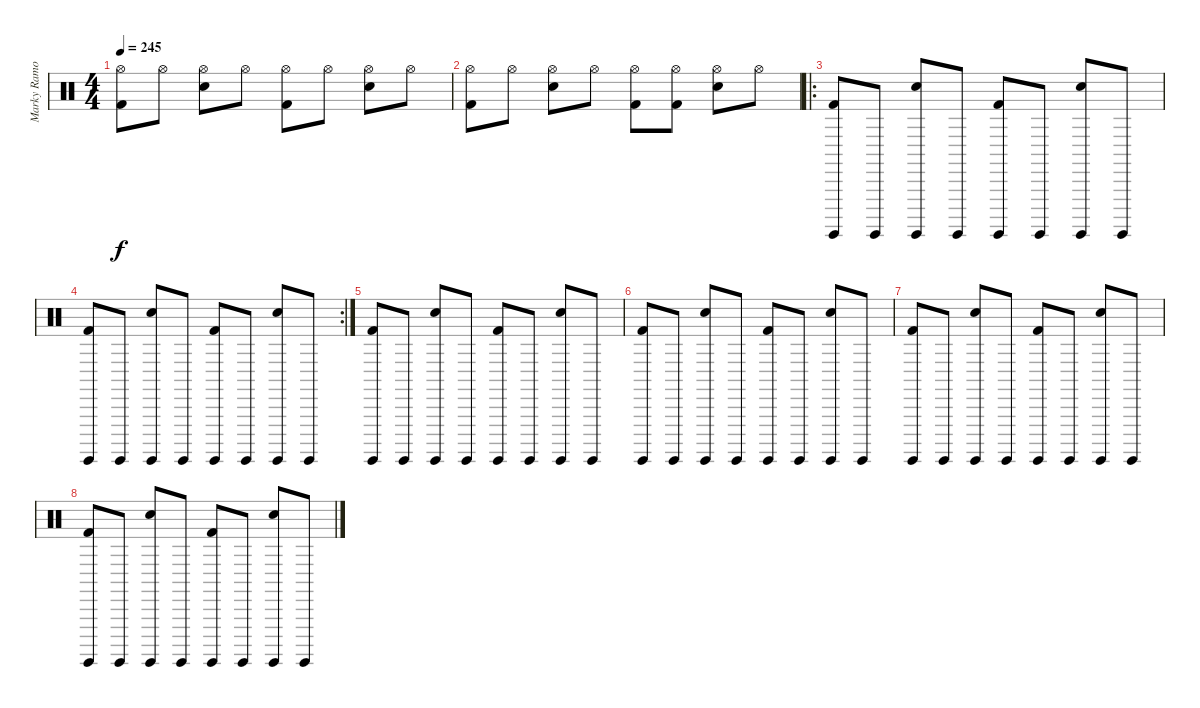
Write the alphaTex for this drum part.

\track ("Marky Ramone" "Marky Ramo") {instrument percussion}
\staff {score}
\articulation defaults
\ts (4 4)
\tempo 245
\clef neutral
\ks c
("Kick (hit) 2" "Hi-Hat (open)").8{dy f} "Hi-Hat (open)".8 ("Electric Snare (hit)" "Hi-Hat (open)").8 "Hi-Hat (open)".8 ("Kick (hit) 2" "Hi-Hat (open)").8 "Hi-Hat (open)".8 ("Electric Snare (hit)" "Hi-Hat (open)").8 "Hi-Hat (open)".8 |
("Kick (hit) 2" "Hi-Hat (open)").8 "Hi-Hat (open)".8 ("Electric Snare (hit)" "Hi-Hat (open)").8 "Hi-Hat (open)".8 ("Kick (hit) 2" "Hi-Hat (open)").8 ("Kick (hit) 2" "Hi-Hat (open)").8 ("Electric Snare (hit)" "Hi-Hat (open)").8 "Hi-Hat (open)".8 |
\ro
("Kick (hit) 2" "Surdo (hit)").8 "Surdo (hit)".8 ("Electric Snare (hit)" "Surdo (hit)").8 "Surdo (hit)".8 ("Kick (hit) 2" "Surdo (hit)").8 "Surdo (hit)".8 ("Electric Snare (hit)" "Surdo (hit)").8 "Surdo (hit)".8 |
\rc 2
("Kick (hit) 2" "Surdo (hit)").8 "Surdo (hit)".8 ("Electric Snare (hit)" "Surdo (hit)").8 "Surdo (hit)".8 ("Kick (hit) 2" "Surdo (hit)").8 "Surdo (hit)".8 ("Electric Snare (hit)" "Surdo (hit)").8 "Surdo (hit)".8 |
("Kick (hit) 2" "Surdo (hit)").8 "Surdo (hit)".8 ("Electric Snare (hit)" "Surdo (hit)").8 "Surdo (hit)".8 ("Kick (hit) 2" "Surdo (hit)").8 "Surdo (hit)".8 ("Electric Snare (hit)" "Surdo (hit)").8 "Surdo (hit)".8 |
("Kick (hit) 2" "Surdo (hit)").8 "Surdo (hit)".8 ("Electric Snare (hit)" "Surdo (hit)").8 "Surdo (hit)".8 ("Kick (hit) 2" "Surdo (hit)").8 "Surdo (hit)".8 ("Electric Snare (hit)" "Surdo (hit)").8 "Surdo (hit)".8 |
("Kick (hit) 2" "Surdo (hit)").8 "Surdo (hit)".8 ("Electric Snare (hit)" "Surdo (hit)").8 "Surdo (hit)".8 ("Kick (hit) 2" "Surdo (hit)").8 "Surdo (hit)".8 ("Electric Snare (hit)" "Surdo (hit)").8 "Surdo (hit)".8 |
("Kick (hit) 2" "Surdo (hit)").8 "Surdo (hit)".8 ("Electric Snare (hit)" "Surdo (hit)").8 "Surdo (hit)".8 ("Kick (hit) 2" "Surdo (hit)").8 "Surdo (hit)".8 ("Electric Snare (hit)" "Surdo (hit)").8 "Surdo (hit)".8
